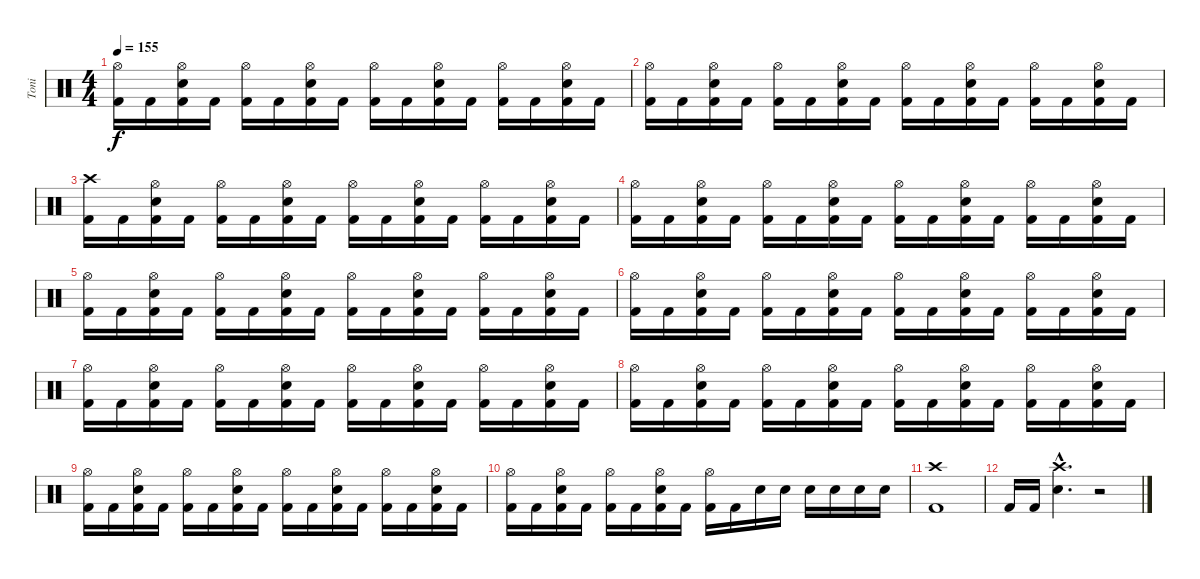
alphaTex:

\track ("Toni" "Toni") {instrument percussion}
\staff {score}
\articulation defaults
\ts (4 4)
\tempo 155
\clef neutral
\ks c
("Hi-Hat (open)" "Kick (hit) 2").16{dy f} "Kick (hit) 2".16 ("Hi-Hat (open)" "Electric Snare (hit)" "Kick (hit) 2").16 "Kick (hit) 2".16 ("Hi-Hat (open)" "Kick (hit) 2").16 "Kick (hit) 2".16 ("Hi-Hat (open)" "Electric Snare (hit)" "Kick (hit) 2").16 "Kick (hit) 2".16 ("Hi-Hat (open)" "Kick (hit) 2").16 "Kick (hit) 2".16 ("Hi-Hat (open)" "Electric Snare (hit)" "Kick (hit) 2").16 "Kick (hit) 2".16 ("Hi-Hat (open)" "Kick (hit) 2").16 "Kick (hit) 2".16 ("Hi-Hat (open)" "Electric Snare (hit)" "Kick (hit) 2").16 "Kick (hit) 2".16 |
("Hi-Hat (open)" "Kick (hit) 2").16 "Kick (hit) 2".16 ("Hi-Hat (open)" "Electric Snare (hit)" "Kick (hit) 2").16 "Kick (hit) 2".16 ("Hi-Hat (open)" "Kick (hit) 2").16 "Kick (hit) 2".16 ("Hi-Hat (open)" "Electric Snare (hit)" "Kick (hit) 2").16 "Kick (hit) 2".16 ("Hi-Hat (open)" "Kick (hit) 2").16 "Kick (hit) 2".16 ("Hi-Hat (open)" "Electric Snare (hit)" "Kick (hit) 2").16 "Kick (hit) 2".16 ("Hi-Hat (open)" "Kick (hit) 2").16 "Kick (hit) 2".16 ("Hi-Hat (open)" "Electric Snare (hit)" "Kick (hit) 2").16 "Kick (hit) 2".16 |
("Crash high (hit)" "Kick (hit) 2").16 "Kick (hit) 2".16 ("Hi-Hat (open)" "Electric Snare (hit)" "Kick (hit) 2").16 "Kick (hit) 2".16 ("Hi-Hat (open)" "Kick (hit) 2").16 "Kick (hit) 2".16 ("Hi-Hat (open)" "Electric Snare (hit)" "Kick (hit) 2").16 "Kick (hit) 2".16 ("Hi-Hat (open)" "Kick (hit) 2").16 "Kick (hit) 2".16 ("Hi-Hat (open)" "Electric Snare (hit)" "Kick (hit) 2").16 "Kick (hit) 2".16 ("Hi-Hat (open)" "Kick (hit) 2").16 "Kick (hit) 2".16 ("Hi-Hat (open)" "Electric Snare (hit)" "Kick (hit) 2").16 "Kick (hit) 2".16 |
("Hi-Hat (open)" "Kick (hit) 2").16 "Kick (hit) 2".16 ("Hi-Hat (open)" "Electric Snare (hit)" "Kick (hit) 2").16 "Kick (hit) 2".16 ("Hi-Hat (open)" "Kick (hit) 2").16 "Kick (hit) 2".16 ("Hi-Hat (open)" "Electric Snare (hit)" "Kick (hit) 2").16 "Kick (hit) 2".16 ("Hi-Hat (open)" "Kick (hit) 2").16 "Kick (hit) 2".16 ("Hi-Hat (open)" "Electric Snare (hit)" "Kick (hit) 2").16 "Kick (hit) 2".16 ("Hi-Hat (open)" "Kick (hit) 2").16 "Kick (hit) 2".16 ("Hi-Hat (open)" "Electric Snare (hit)" "Kick (hit) 2").16 "Kick (hit) 2".16 |
("Hi-Hat (open)" "Kick (hit) 2").16 "Kick (hit) 2".16 ("Hi-Hat (open)" "Electric Snare (hit)" "Kick (hit) 2").16 "Kick (hit) 2".16 ("Hi-Hat (open)" "Kick (hit) 2").16 "Kick (hit) 2".16 ("Hi-Hat (open)" "Electric Snare (hit)" "Kick (hit) 2").16 "Kick (hit) 2".16 ("Hi-Hat (open)" "Kick (hit) 2").16 "Kick (hit) 2".16 ("Hi-Hat (open)" "Electric Snare (hit)" "Kick (hit) 2").16 "Kick (hit) 2".16 ("Hi-Hat (open)" "Kick (hit) 2").16 "Kick (hit) 2".16 ("Hi-Hat (open)" "Electric Snare (hit)" "Kick (hit) 2").16 "Kick (hit) 2".16 |
("Hi-Hat (open)" "Kick (hit) 2").16 "Kick (hit) 2".16 ("Hi-Hat (open)" "Electric Snare (hit)" "Kick (hit) 2").16 "Kick (hit) 2".16 ("Hi-Hat (open)" "Kick (hit) 2").16 "Kick (hit) 2".16 ("Hi-Hat (open)" "Electric Snare (hit)" "Kick (hit) 2").16 "Kick (hit) 2".16 ("Hi-Hat (open)" "Kick (hit) 2").16 "Kick (hit) 2".16 ("Hi-Hat (open)" "Electric Snare (hit)" "Kick (hit) 2").16 "Kick (hit) 2".16 ("Hi-Hat (open)" "Kick (hit) 2").16 "Kick (hit) 2".16 ("Hi-Hat (open)" "Electric Snare (hit)" "Kick (hit) 2").16 "Kick (hit) 2".16 |
("Hi-Hat (open)" "Kick (hit) 2").16 "Kick (hit) 2".16 ("Hi-Hat (open)" "Electric Snare (hit)" "Kick (hit) 2").16 "Kick (hit) 2".16 ("Hi-Hat (open)" "Kick (hit) 2").16 "Kick (hit) 2".16 ("Hi-Hat (open)" "Electric Snare (hit)" "Kick (hit) 2").16 "Kick (hit) 2".16 ("Hi-Hat (open)" "Kick (hit) 2").16 "Kick (hit) 2".16 ("Hi-Hat (open)" "Electric Snare (hit)" "Kick (hit) 2").16 "Kick (hit) 2".16 ("Hi-Hat (open)" "Kick (hit) 2").16 "Kick (hit) 2".16 ("Hi-Hat (open)" "Electric Snare (hit)" "Kick (hit) 2").16 "Kick (hit) 2".16 |
("Hi-Hat (open)" "Kick (hit) 2").16 "Kick (hit) 2".16 ("Hi-Hat (open)" "Electric Snare (hit)" "Kick (hit) 2").16 "Kick (hit) 2".16 ("Hi-Hat (open)" "Kick (hit) 2").16 "Kick (hit) 2".16 ("Hi-Hat (open)" "Electric Snare (hit)" "Kick (hit) 2").16 "Kick (hit) 2".16 ("Hi-Hat (open)" "Kick (hit) 2").16 "Kick (hit) 2".16 ("Hi-Hat (open)" "Electric Snare (hit)" "Kick (hit) 2").16 "Kick (hit) 2".16 ("Hi-Hat (open)" "Kick (hit) 2").16 "Kick (hit) 2".16 ("Hi-Hat (open)" "Electric Snare (hit)" "Kick (hit) 2").16 "Kick (hit) 2".16 |
("Hi-Hat (open)" "Kick (hit) 2").16 "Kick (hit) 2".16 ("Hi-Hat (open)" "Electric Snare (hit)" "Kick (hit) 2").16 "Kick (hit) 2".16 ("Hi-Hat (open)" "Kick (hit) 2").16 "Kick (hit) 2".16 ("Hi-Hat (open)" "Electric Snare (hit)" "Kick (hit) 2").16 "Kick (hit) 2".16 ("Hi-Hat (open)" "Kick (hit) 2").16 "Kick (hit) 2".16 ("Hi-Hat (open)" "Electric Snare (hit)" "Kick (hit) 2").16 "Kick (hit) 2".16 ("Hi-Hat (open)" "Kick (hit) 2").16 "Kick (hit) 2".16 ("Hi-Hat (open)" "Electric Snare (hit)" "Kick (hit) 2").16 "Kick (hit) 2".16 |
("Hi-Hat (open)" "Kick (hit) 2").16 "Kick (hit) 2".16 ("Hi-Hat (open)" "Electric Snare (hit)" "Kick (hit) 2").16 "Kick (hit) 2".16 ("Hi-Hat (open)" "Kick (hit) 2").16 "Kick (hit) 2".16 ("Hi-Hat (open)" "Electric Snare (hit)" "Kick (hit) 2").16 "Kick (hit) 2".16 ("Hi-Hat (open)" "Kick (hit) 2").16 "Kick (hit) 2".16 "Electric Snare (hit)".16 "Electric Snare (hit)".16 "Electric Snare (hit)".16 "Electric Snare (hit)".16 "Electric Snare (hit)".16 "Electric Snare (hit)".16 |
("Crash high (hit)" "Kick (hit) 2").1 |
"Kick (hit) 2".16 "Kick (hit) 2".16 ("Crash high (hit)"{hac} "Electric Snare (hit)"{hac}).4{d} r.2
